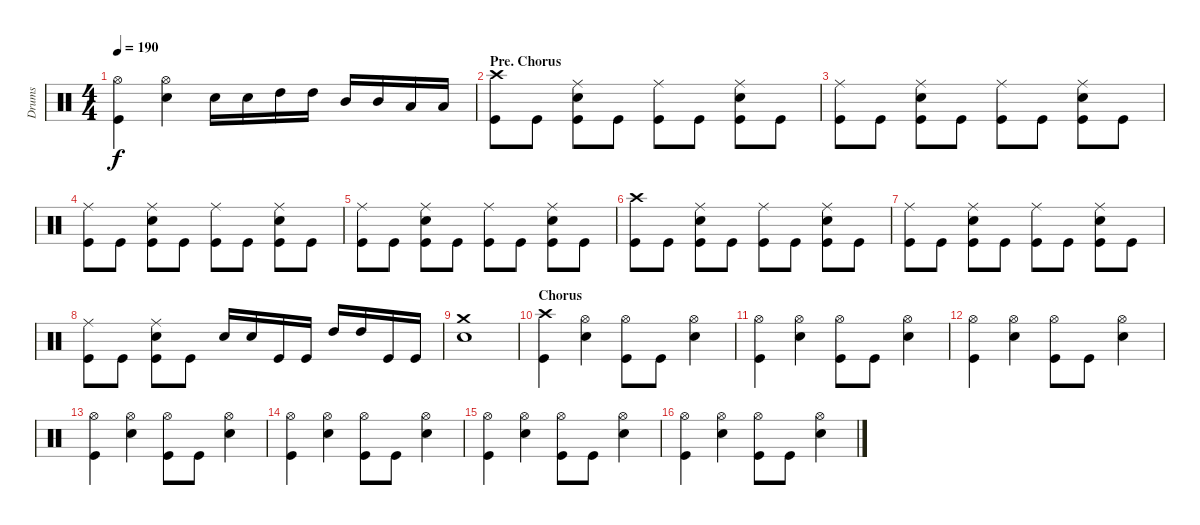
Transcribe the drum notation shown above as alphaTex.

\track ("Drums" "Drums") {instrument percussion}
\staff {score}
\articulation defaults
\ts (4 4)
\tempo 190
\clef neutral
\ks c
("Hi-Hat (open)" "Kick (hit)").4{dy f} ("Hi-Hat (open)" "Electric Snare (hit)").4 "Electric Snare (hit)".16 "Electric Snare (hit)".16 "High Tom (hit)".16 "High Tom (hit)".16 "Mid Tom (hit)".16 "Mid Tom (hit)".16 "Low Tom (hit)".16 "Low Tom (hit)".16 |
\section ("" "Pre. Chorus")
("Crash high (hit)" "Kick (hit)").8 "Kick (hit)".8 ("Ride (middle)" "Electric Snare (hit)" "Kick (hit)").8 "Kick (hit)".8 ("Ride (middle)" "Kick (hit)").8 "Kick (hit)".8 ("Ride (middle)" "Electric Snare (hit)" "Kick (hit)").8 "Kick (hit)".8 |
("Ride (middle)" "Kick (hit)").8 "Kick (hit)".8 ("Ride (middle)" "Electric Snare (hit)" "Kick (hit)").8 "Kick (hit)".8 ("Ride (middle)" "Kick (hit)").8 "Kick (hit)".8 ("Ride (middle)" "Electric Snare (hit)" "Kick (hit)").8 "Kick (hit)".8 |
("Ride (middle)" "Kick (hit)").8 "Kick (hit)".8 ("Ride (middle)" "Electric Snare (hit)" "Kick (hit)").8 "Kick (hit)".8 ("Ride (middle)" "Kick (hit)").8 "Kick (hit)".8 ("Ride (middle)" "Electric Snare (hit)" "Kick (hit)").8 "Kick (hit)".8 |
("Ride (middle)" "Kick (hit)").8 "Kick (hit)".8 ("Ride (middle)" "Electric Snare (hit)" "Kick (hit)").8 "Kick (hit)".8 ("Ride (middle)" "Kick (hit)").8 "Kick (hit)".8 ("Ride (middle)" "Electric Snare (hit)" "Kick (hit)").8 "Kick (hit)".8 |
("Crash high (hit)" "Kick (hit)").8 "Kick (hit)".8 ("Ride (middle)" "Electric Snare (hit)" "Kick (hit)").8 "Kick (hit)".8 ("Ride (middle)" "Kick (hit)").8 "Kick (hit)".8 ("Ride (middle)" "Electric Snare (hit)" "Kick (hit)").8 "Kick (hit)".8 |
("Ride (middle)" "Kick (hit)").8 "Kick (hit)".8 ("Ride (middle)" "Electric Snare (hit)" "Kick (hit)").8 "Kick (hit)".8 ("Ride (middle)" "Kick (hit)").8 "Kick (hit)".8 ("Ride (middle)" "Electric Snare (hit)" "Kick (hit)").8 "Kick (hit)".8 |
("Ride (middle)" "Kick (hit)").8 "Kick (hit)".8 ("Ride (middle)" "Electric Snare (hit)" "Kick (hit)").8 "Kick (hit)".8 "Electric Snare (hit)".16 "Electric Snare (hit)".16 "Kick (hit)".16 "Kick (hit)".16 "High Tom (hit)".16 "High Tom (hit)".16 "Kick (hit)".16 "Kick (hit)".16 |
("Crash medium (hit)" "Electric Snare (hit)").1 |
\section ("" "Chorus")
("Crash high (hit)" "Kick (hit)").4 ("Hi-Hat (open)" "Electric Snare (hit)").4 ("Hi-Hat (open)" "Kick (hit)").8 "Kick (hit)".8 ("Hi-Hat (open)" "Electric Snare (hit)").4 |
("Hi-Hat (open)" "Kick (hit)").4 ("Hi-Hat (open)" "Electric Snare (hit)").4 ("Hi-Hat (open)" "Kick (hit)").8 "Kick (hit)".8 ("Hi-Hat (open)" "Electric Snare (hit)").4 |
("Hi-Hat (open)" "Kick (hit)").4 ("Hi-Hat (open)" "Electric Snare (hit)").4 ("Hi-Hat (open)" "Kick (hit)").8 "Kick (hit)".8 ("Hi-Hat (open)" "Electric Snare (hit)").4 |
("Hi-Hat (open)" "Kick (hit)").4 ("Hi-Hat (open)" "Electric Snare (hit)").4 ("Hi-Hat (open)" "Kick (hit)").8 "Kick (hit)".8 ("Hi-Hat (open)" "Electric Snare (hit)").4 |
("Hi-Hat (open)" "Kick (hit)").4 ("Hi-Hat (open)" "Electric Snare (hit)").4 ("Hi-Hat (open)" "Kick (hit)").8 "Kick (hit)".8 ("Hi-Hat (open)" "Electric Snare (hit)").4 |
("Hi-Hat (open)" "Kick (hit)").4 ("Hi-Hat (open)" "Electric Snare (hit)").4 ("Hi-Hat (open)" "Kick (hit)").8 "Kick (hit)".8 ("Hi-Hat (open)" "Electric Snare (hit)").4 |
("Hi-Hat (open)" "Kick (hit)").4 ("Hi-Hat (open)" "Electric Snare (hit)").4 ("Hi-Hat (open)" "Kick (hit)").8 "Kick (hit)".8 ("Hi-Hat (open)" "Electric Snare (hit)").4
